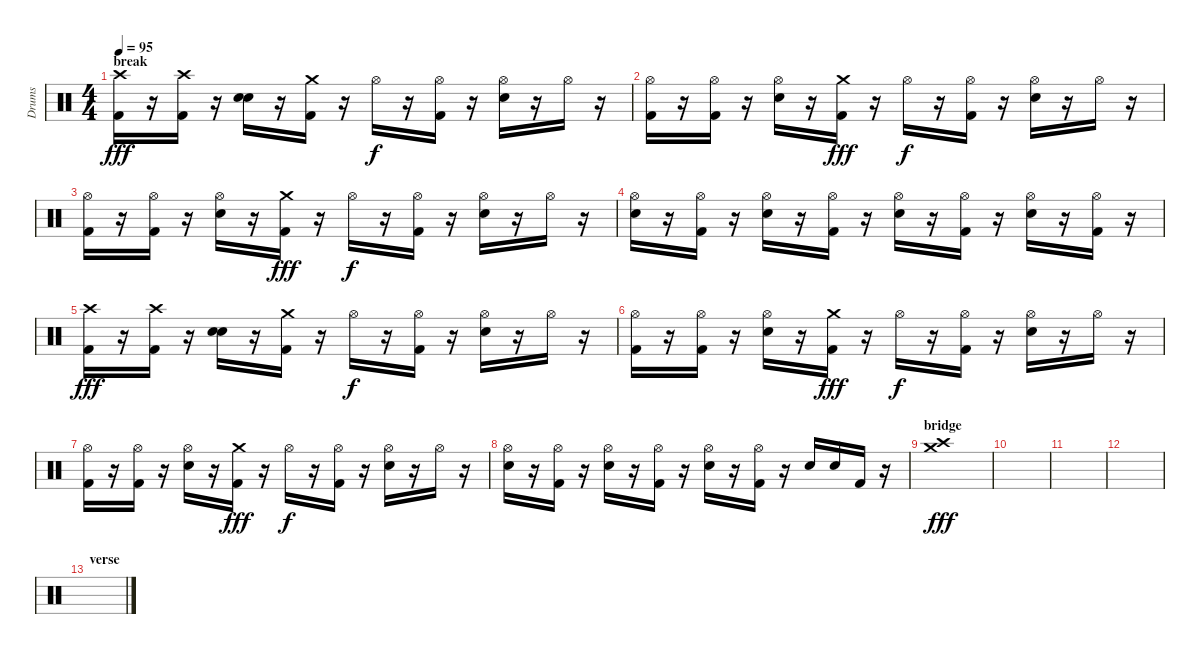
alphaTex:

\track ("Drums" "Drums") {instrument percussion}
\staff {score}
\articulation defaults
\ts (4 4)
\section ("" "break")
\tempo 95
\clef neutral
\ks c
("Crash high (hit)" "Kick (hit) 2").16{dy fff} r.16 ("Crash high (hit)" "Kick (hit) 2").16 r.16 ("Snare (hit) 2" "Electric Snare (hit)").16 r.16 ("Crash medium (hit)" "Kick (hit) 2").16 r.16 "Hi-Hat (open)".16{dy f} r.16 ("Hi-Hat (open)" "Kick (hit) 2").16 r.16 ("Hi-Hat (open)" "Electric Snare (hit)").16 r.16 "Hi-Hat (open)".16 r.16 |
("Hi-Hat (open)" "Kick (hit) 2").16 r.16 ("Hi-Hat (open)" "Kick (hit) 2").16 r.16 ("Hi-Hat (open)" "Electric Snare (hit)").16 r.16 ("Crash medium (hit)" "Kick (hit) 2").16{dy fff} r.16 "Hi-Hat (open)".16{dy f} r.16 ("Hi-Hat (open)" "Kick (hit) 2").16 r.16 ("Hi-Hat (open)" "Electric Snare (hit)").16 r.16 "Hi-Hat (open)".16 r.16 |
("Hi-Hat (open)" "Kick (hit) 2").16 r.16 ("Hi-Hat (open)" "Kick (hit) 2").16 r.16 ("Hi-Hat (open)" "Electric Snare (hit)").16 r.16 ("Crash medium (hit)" "Kick (hit) 2").16{dy fff} r.16 "Hi-Hat (open)".16{dy f} r.16 ("Hi-Hat (open)" "Kick (hit) 2").16 r.16 ("Hi-Hat (open)" "Electric Snare (hit)").16 r.16 "Hi-Hat (open)".16 r.16 |
("Hi-Hat (open)" "Electric Snare (hit)").16 r.16 ("Hi-Hat (open)" "Kick (hit) 2").16 r.16 ("Hi-Hat (open)" "Electric Snare (hit)").16 r.16 ("Hi-Hat (open)" "Kick (hit) 2").16 r.16 ("Hi-Hat (open)" "Electric Snare (hit)").16 r.16 ("Hi-Hat (open)" "Kick (hit) 2").16 r.16 ("Hi-Hat (open)" "Electric Snare (hit)").16 r.16 ("Hi-Hat (open)" "Kick (hit) 2").16 r.16 |
("Crash high (hit)" "Kick (hit) 2").16{dy fff} r.16 ("Crash high (hit)" "Kick (hit) 2").16 r.16 ("Snare (hit) 2" "Electric Snare (hit)").16 r.16 ("Crash medium (hit)" "Kick (hit) 2").16 r.16 "Hi-Hat (open)".16{dy f} r.16 ("Hi-Hat (open)" "Kick (hit) 2").16 r.16 ("Hi-Hat (open)" "Electric Snare (hit)").16 r.16 "Hi-Hat (open)".16 r.16 |
("Hi-Hat (open)" "Kick (hit) 2").16 r.16 ("Hi-Hat (open)" "Kick (hit) 2").16 r.16 ("Hi-Hat (open)" "Electric Snare (hit)").16 r.16 ("Crash medium (hit)" "Kick (hit) 2").16{dy fff} r.16 "Hi-Hat (open)".16{dy f} r.16 ("Hi-Hat (open)" "Kick (hit) 2").16 r.16 ("Hi-Hat (open)" "Electric Snare (hit)").16 r.16 "Hi-Hat (open)".16 r.16 |
("Hi-Hat (open)" "Kick (hit) 2").16 r.16 ("Hi-Hat (open)" "Kick (hit) 2").16 r.16 ("Hi-Hat (open)" "Electric Snare (hit)").16 r.16 ("Crash medium (hit)" "Kick (hit) 2").16{dy fff} r.16 "Hi-Hat (open)".16{dy f} r.16 ("Hi-Hat (open)" "Kick (hit) 2").16 r.16 ("Hi-Hat (open)" "Electric Snare (hit)").16 r.16 "Hi-Hat (open)".16 r.16 |
("Hi-Hat (open)" "Electric Snare (hit)").16 r.16 ("Hi-Hat (open)" "Kick (hit) 2").16 r.16 ("Hi-Hat (open)" "Electric Snare (hit)").16 r.16 ("Hi-Hat (open)" "Kick (hit) 2").16 r.16 ("Hi-Hat (open)" "Electric Snare (hit)").16 r.16 ("Hi-Hat (open)" "Kick (hit) 2").16 r.16 "Electric Snare (hit)".16 "Electric Snare (hit)".16 "Kick (hit) 2".16 r.16 |
\section ("" "bridge")
("Crash medium (hit)" "Crash high (hit)").1{dy fff} |
|
|
|
\section ("" "verse")
